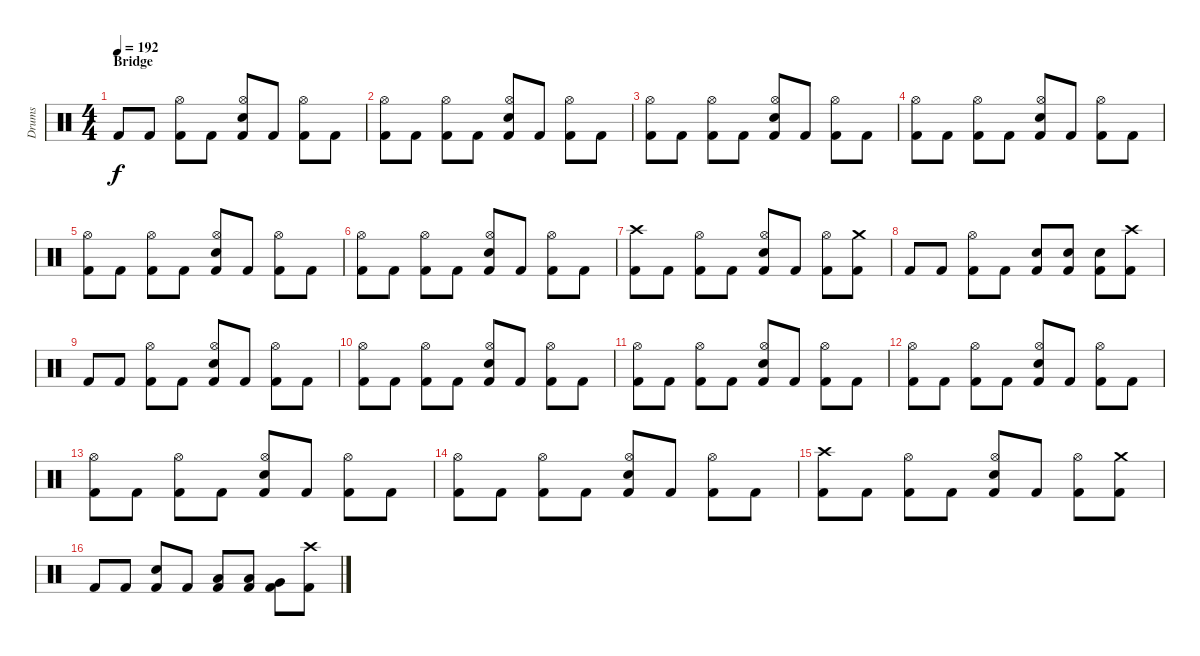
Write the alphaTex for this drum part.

\track ("Drums" "Drums") {instrument percussion}
\staff {score}
\articulation defaults
\ts (4 4)
\section ("" "Bridge")
\tempo 192
\clef neutral
\ks c "Kick (hit) 2".8{dy f} "Kick (hit) 2".8
("Hi-Hat (open)" "Kick (hit) 2").8 "Kick (hit) 2".8 ("Hi-Hat (open)" "Snare (hit) 2" "Kick (hit) 2").8 "Kick (hit) 2".8 ("Hi-Hat (open)" "Kick (hit) 2").8 "Kick (hit) 2".8 |
("Hi-Hat (open)" "Kick (hit) 2").8 "Kick (hit) 2".8 ("Hi-Hat (open)" "Kick (hit) 2").8 "Kick (hit) 2".8 ("Hi-Hat (open)" "Snare (hit) 2" "Kick (hit) 2").8 "Kick (hit) 2".8 ("Hi-Hat (open)" "Kick (hit) 2").8 "Kick (hit) 2".8 |
("Hi-Hat (open)" "Kick (hit) 2").8 "Kick (hit) 2".8 ("Hi-Hat (open)" "Kick (hit) 2").8 "Kick (hit) 2".8 ("Hi-Hat (open)" "Snare (hit) 2" "Kick (hit) 2").8 "Kick (hit) 2".8 ("Hi-Hat (open)" "Kick (hit) 2").8 "Kick (hit) 2".8 |
("Hi-Hat (open)" "Kick (hit) 2").8 "Kick (hit) 2".8 ("Hi-Hat (open)" "Kick (hit) 2").8 "Kick (hit) 2".8 ("Hi-Hat (open)" "Snare (hit) 2" "Kick (hit) 2").8 "Kick (hit) 2".8 ("Hi-Hat (open)" "Kick (hit) 2").8 "Kick (hit) 2".8 |
("Hi-Hat (open)" "Kick (hit) 2").8 "Kick (hit) 2".8 ("Hi-Hat (open)" "Kick (hit) 2").8 "Kick (hit) 2".8 ("Hi-Hat (open)" "Snare (hit) 2" "Kick (hit) 2").8 "Kick (hit) 2".8 ("Hi-Hat (open)" "Kick (hit) 2").8 "Kick (hit) 2".8 |
("Hi-Hat (open)" "Kick (hit) 2").8 "Kick (hit) 2".8 ("Hi-Hat (open)" "Kick (hit) 2").8 "Kick (hit) 2".8 ("Hi-Hat (open)" "Snare (hit) 2" "Kick (hit) 2").8 "Kick (hit) 2".8 ("Hi-Hat (open)" "Kick (hit) 2").8 "Kick (hit) 2".8 |
("Crash high (hit)" "Kick (hit) 2").8 "Kick (hit) 2".8 ("Hi-Hat (open)" "Kick (hit) 2").8 "Kick (hit) 2".8 ("Hi-Hat (open)" "Snare (hit) 2" "Kick (hit) 2").8 "Kick (hit) 2".8 ("Hi-Hat (open)" "Kick (hit) 2").8 ("Crash medium (hit)" "Kick (hit) 2").8 |
"Kick (hit) 2".8 "Kick (hit) 2".8 ("Hi-Hat (open)" "Kick (hit) 2").8 "Kick (hit) 2".8 ("Snare (hit) 2" "Kick (hit) 2").8 ("Snare (hit) 2" "Kick (hit) 2").8 ("Snare (hit) 2" "Kick (hit) 2").8 ("Crash high (hit)" "Kick (hit) 2").8 |
"Kick (hit) 2".8 "Kick (hit) 2".8 ("Hi-Hat (open)" "Kick (hit) 2").8 "Kick (hit) 2".8 ("Hi-Hat (open)" "Snare (hit) 2" "Kick (hit) 2").8 "Kick (hit) 2".8 ("Hi-Hat (open)" "Kick (hit) 2").8 "Kick (hit) 2".8 |
("Hi-Hat (open)" "Kick (hit) 2").8 "Kick (hit) 2".8 ("Hi-Hat (open)" "Kick (hit) 2").8 "Kick (hit) 2".8 ("Hi-Hat (open)" "Snare (hit) 2" "Kick (hit) 2").8 "Kick (hit) 2".8 ("Hi-Hat (open)" "Kick (hit) 2").8 "Kick (hit) 2".8 |
("Hi-Hat (open)" "Kick (hit) 2").8 "Kick (hit) 2".8 ("Hi-Hat (open)" "Kick (hit) 2").8 "Kick (hit) 2".8 ("Hi-Hat (open)" "Snare (hit) 2" "Kick (hit) 2").8 "Kick (hit) 2".8 ("Hi-Hat (open)" "Kick (hit) 2").8 "Kick (hit) 2".8 |
("Hi-Hat (open)" "Kick (hit) 2").8 "Kick (hit) 2".8 ("Hi-Hat (open)" "Kick (hit) 2").8 "Kick (hit) 2".8 ("Hi-Hat (open)" "Snare (hit) 2" "Kick (hit) 2").8 "Kick (hit) 2".8 ("Hi-Hat (open)" "Kick (hit) 2").8 "Kick (hit) 2".8 |
("Hi-Hat (open)" "Kick (hit) 2").8 "Kick (hit) 2".8 ("Hi-Hat (open)" "Kick (hit) 2").8 "Kick (hit) 2".8 ("Hi-Hat (open)" "Snare (hit) 2" "Kick (hit) 2").8 "Kick (hit) 2".8 ("Hi-Hat (open)" "Kick (hit) 2").8 "Kick (hit) 2".8 |
("Hi-Hat (open)" "Kick (hit) 2").8 "Kick (hit) 2".8 ("Hi-Hat (open)" "Kick (hit) 2").8 "Kick (hit) 2".8 ("Hi-Hat (open)" "Snare (hit) 2" "Kick (hit) 2").8 "Kick (hit) 2".8 ("Hi-Hat (open)" "Kick (hit) 2").8 "Kick (hit) 2".8 |
("Crash high (hit)" "Kick (hit) 2").8 "Kick (hit) 2".8 ("Hi-Hat (open)" "Kick (hit) 2").8 "Kick (hit) 2".8 ("Hi-Hat (open)" "Snare (hit) 2" "Kick (hit) 2").8 "Kick (hit) 2".8 ("Hi-Hat (open)" "Kick (hit) 2").8 ("Crash medium (hit)" "Kick (hit) 2").8 |
"Kick (hit) 2".8 "Kick (hit) 2".8 ("Snare (hit) 2" "Kick (hit) 2").8 "Kick (hit) 2".8 ("Low Tom (hit)" "Kick (hit) 2").8 ("Low Tom (hit)" "Kick (hit) 2").8 ("Very Low Tom (hit)" "Kick (hit) 2").8 ("Crash high (hit)" "Kick (hit) 2").8
